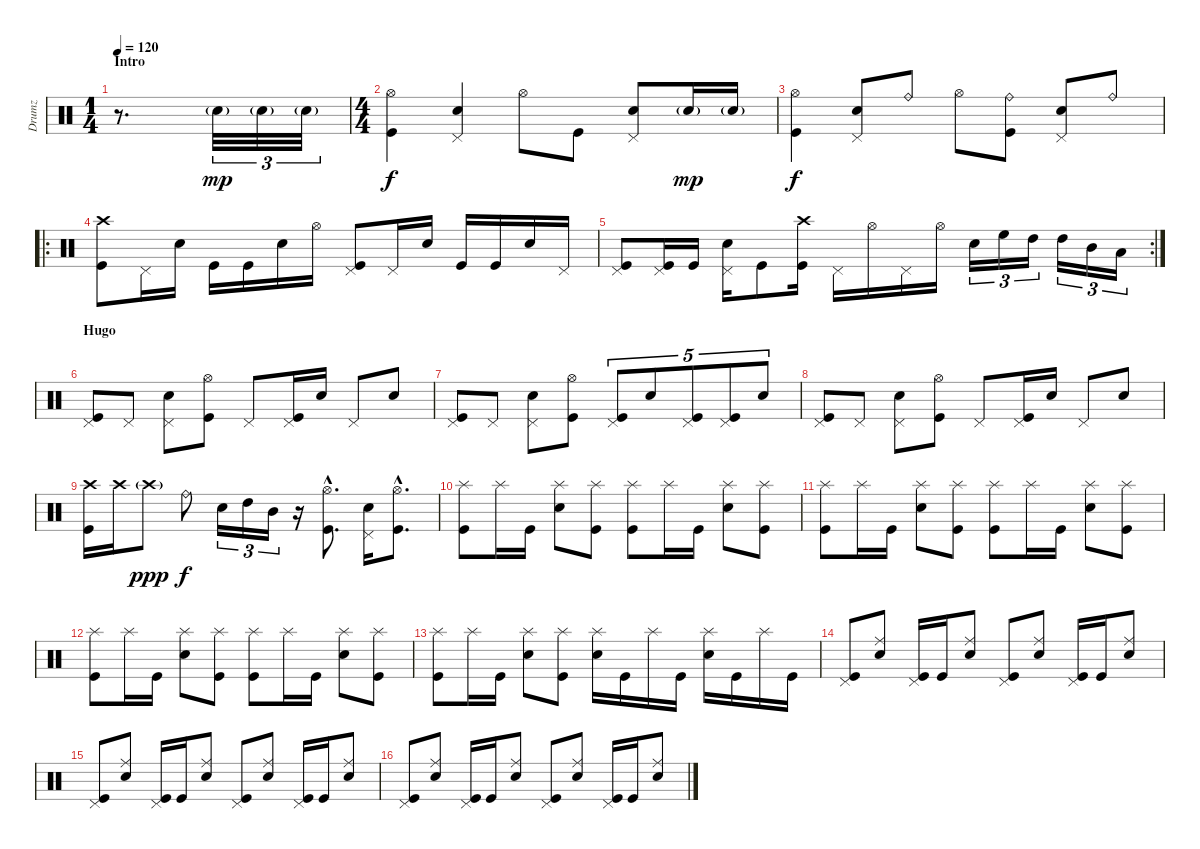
\track ("Drumz" "Drumz") {instrument percussion}
\staff {score}
\articulation defaults
\ts (1 4)
\section ("" "Intro")
\tempo 120
\clef neutral
\ks c
r.8{d dy mp} "Electric Snare (hit)"{g}.32{tu (3 2)} "Electric Snare (hit)"{g}.32{tu (3 2)} "Electric Snare (hit)"{g}.32{tu (3 2)} |
\ts (4 4)
("Hi-Hat (open)" "Kick (hit)").4{dy f} ("Pedal Hi-Hat (hit)" "Electric Snare (hit)").4 "Hi-Hat (open)".8 "Kick (hit)".8 ("Pedal Hi-Hat (hit)" "Electric Snare (hit)").8 "Electric Snare (hit)"{g}.16{dy mp} "Electric Snare (hit)"{g}.16 |
("Hi-Hat (open)" "Kick (hit)").4{dy f} ("Pedal Hi-Hat (hit)" "Electric Snare (hit)").8 "Ride (bell)".8 "Hi-Hat (open)".8 ("Ride (bell)" "Kick (hit)").8 ("Pedal Hi-Hat (hit)" "Electric Snare (hit)").8 "Ride (bell)".8 |
\ro
("Crash high (hit)" "Kick (hit)").8 "Pedal Hi-Hat (hit)".16 "Electric Snare (hit)".16 "Kick (hit)".16 "Kick (hit)".16 "Electric Snare (hit)".16 "Hi-Hat (open)".16 ("Pedal Hi-Hat (hit)" "Kick (hit)").8 "Pedal Hi-Hat (hit)".16 "Electric Snare (hit)".16 "Kick (hit)".16 "Kick (hit)".16 "Electric Snare (hit)".16 "Pedal Hi-Hat (hit)".16 |
\rc 2
("Pedal Hi-Hat (hit)" "Kick (hit)").8 ("Pedal Hi-Hat (hit)" "Kick (hit)").16 "Kick (hit)".16 ("Pedal Hi-Hat (hit)" "Electric Snare (hit)").16 "Kick (hit)".8 ("Crash high (hit)" "Kick (hit)").16 "Pedal Hi-Hat (hit)".16 "Hi-Hat (open)".16 "Pedal Hi-Hat (hit)".16 "Hi-Hat (open)".16 "Electric Snare (hit)".16{tu (3 2)} "High Floor Tom (hit)".16{tu (3 2)} "High Tom (hit)".16{tu (3 2)} "High Tom (hit)".16{tu (3 2)} "Mid Tom (hit)".16{tu (3 2)} "Low Tom (hit)".16{tu (3 2)} |
\section ("" "Hugo")
("Pedal Hi-Hat (hit)" "Kick (hit)").8 "Pedal Hi-Hat (hit)".8 ("Pedal Hi-Hat (hit)" "Electric Snare (hit)").8 ("Hi-Hat (open)" "Kick (hit)").8 "Pedal Hi-Hat (hit)".8 ("Pedal Hi-Hat (hit)" "Kick (hit)").16 "Electric Snare (hit)".16 "Pedal Hi-Hat (hit)".8 "Electric Snare (hit)".8 |
("Pedal Hi-Hat (hit)" "Kick (hit)").8 "Pedal Hi-Hat (hit)".8 ("Pedal Hi-Hat (hit)" "Electric Snare (hit)").8 ("Hi-Hat (open)" "Kick (hit)").8 ("Pedal Hi-Hat (hit)" "Kick (hit)").8{tu (5 4)} "Electric Snare (hit)".8{tu (5 4)} ("Pedal Hi-Hat (hit)" "Kick (hit)").8{tu (5 4)} ("Pedal Hi-Hat (hit)" "Kick (hit)").8{tu (5 4)} "Electric Snare (hit)".8{tu (5 4)} |
("Pedal Hi-Hat (hit)" "Kick (hit)").8 "Pedal Hi-Hat (hit)".8 ("Pedal Hi-Hat (hit)" "Electric Snare (hit)").8 ("Hi-Hat (open)" "Kick (hit)").8 "Pedal Hi-Hat (hit)".8 ("Pedal Hi-Hat (hit)" "Kick (hit)").16 "Electric Snare (hit)".16 "Pedal Hi-Hat (hit)".8 "Electric Snare (hit)".8 |
("Crash high (hit)" "Kick (hit)").16 "Crash high (hit)".16 "Crash high (hit)"{g}.8{dy ppp} "Ride (bell)".8{dy f} "Electric Snare (hit)".16{tu (3 2)} "High Tom (hit)".16{tu (3 2)} "Mid Tom (hit)".16{tu (3 2)} r.16 ("Hi-Hat (open)"{hac} "Kick (hit)"{hac}).8{d} ("Pedal Hi-Hat (hit)" "Electric Snare (hit)").16 ("Hi-Hat (open)"{hac} "Kick (hit)"{hac}).8{d} |
("Splash (hit)" "Kick (hit)").8 "Splash (hit)".16 "Kick (hit)".16 ("Splash (hit)" "Electric Snare (hit)").8 ("Splash (hit)" "Kick (hit)").8 ("Splash (hit)" "Kick (hit)").8 "Splash (hit)".16 "Kick (hit)".16 ("Splash (hit)" "Electric Snare (hit)").8 ("Splash (hit)" "Kick (hit)").8 |
("Splash (hit)" "Kick (hit)").8 "Splash (hit)".16 "Kick (hit)".16 ("Splash (hit)" "Electric Snare (hit)").8 ("Splash (hit)" "Kick (hit)").8 ("Splash (hit)" "Kick (hit)").8 "Splash (hit)".16 "Kick (hit)".16 ("Splash (hit)" "Electric Snare (hit)").8 ("Splash (hit)" "Kick (hit)").8 |
("Splash (hit)" "Kick (hit)").8 "Splash (hit)".16 "Kick (hit)".16 ("Splash (hit)" "Electric Snare (hit)").8 ("Splash (hit)" "Kick (hit)").8 ("Splash (hit)" "Kick (hit)").8 "Splash (hit)".16 "Kick (hit)".16 ("Splash (hit)" "Electric Snare (hit)").8 ("Splash (hit)" "Kick (hit)").8 |
("Splash (hit)" "Kick (hit)").8 "Splash (hit)".16 "Kick (hit)".16 ("Splash (hit)" "Electric Snare (hit)").8 ("Splash (hit)" "Kick (hit)").8 ("Splash (hit)" "Electric Snare (hit)").16 "Kick (hit)".16 "Splash (hit)".16 "Kick (hit)".16 ("Splash (hit)" "Electric Snare (hit)").16 "Kick (hit)".16 "Splash (hit)".16 "Kick (hit)".16 |
("Pedal Hi-Hat (hit)" "Kick (hit)").8 ("Ride (middle)" "Electric Snare (hit)").8 ("Pedal Hi-Hat (hit)" "Kick (hit)").16 "Kick (hit)".16 ("Ride (middle)" "Electric Snare (hit)").8 ("Pedal Hi-Hat (hit)" "Kick (hit)").8 ("Ride (middle)" "Electric Snare (hit)").8 ("Pedal Hi-Hat (hit)" "Kick (hit)").16 "Kick (hit)".16 ("Ride (middle)" "Electric Snare (hit)").8 |
("Pedal Hi-Hat (hit)" "Kick (hit)").8 ("Ride (middle)" "Electric Snare (hit)").8 ("Pedal Hi-Hat (hit)" "Kick (hit)").16 "Kick (hit)".16 ("Ride (middle)" "Electric Snare (hit)").8 ("Pedal Hi-Hat (hit)" "Kick (hit)").8 ("Ride (middle)" "Electric Snare (hit)").8 ("Pedal Hi-Hat (hit)" "Kick (hit)").16 "Kick (hit)".16 ("Ride (middle)" "Electric Snare (hit)").8 |
("Pedal Hi-Hat (hit)" "Kick (hit)").8 ("Ride (middle)" "Electric Snare (hit)").8 ("Pedal Hi-Hat (hit)" "Kick (hit)").16 "Kick (hit)".16 ("Ride (middle)" "Electric Snare (hit)").8 ("Pedal Hi-Hat (hit)" "Kick (hit)").8 ("Ride (middle)" "Electric Snare (hit)").8 ("Pedal Hi-Hat (hit)" "Kick (hit)").16 "Kick (hit)".16 ("Ride (middle)" "Electric Snare (hit)").8
